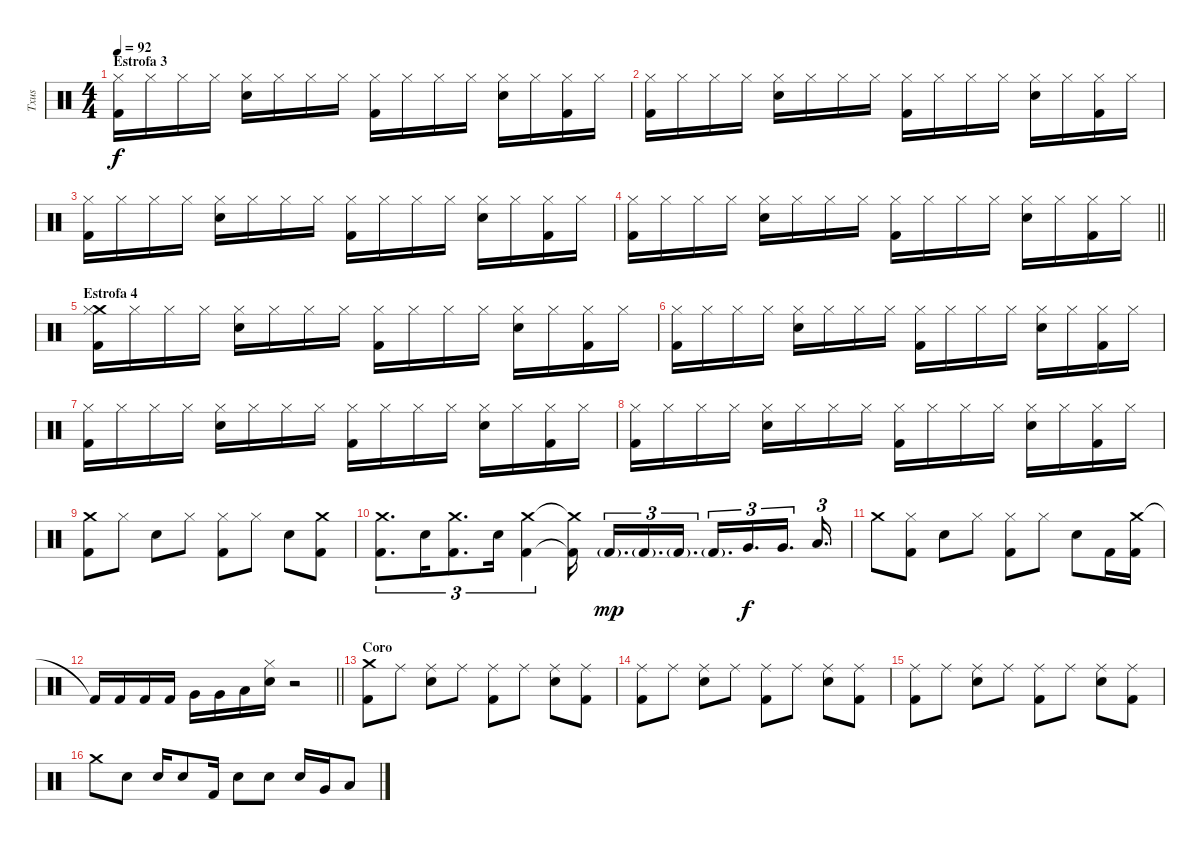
\track ("Txus" "Txus") {instrument percussion}
\staff {score}
\articulation defaults
\ts (4 4)
\section ("" "Estrofa 3")
\tempo 92
\clef neutral
\ks c
("Hi-Hat (closed)" "Kick (hit) 2").16{dy f} "Hi-Hat (closed)".16 "Hi-Hat (closed)".16 "Hi-Hat (closed)".16 ("Hi-Hat (closed)" "Electric Snare (hit)").16 "Hi-Hat (closed)".16 "Hi-Hat (closed)".16 "Hi-Hat (closed)".16 ("Hi-Hat (closed)" "Kick (hit) 2").16 "Hi-Hat (closed)".16 "Hi-Hat (closed)".16 "Hi-Hat (closed)".16 ("Hi-Hat (closed)" "Electric Snare (hit)").16 "Hi-Hat (closed)".16 ("Hi-Hat (closed)" "Kick (hit) 2").16 "Hi-Hat (closed)".16 |
("Hi-Hat (closed)" "Kick (hit) 2").16 "Hi-Hat (closed)".16 "Hi-Hat (closed)".16 "Hi-Hat (closed)".16 ("Hi-Hat (closed)" "Electric Snare (hit)").16 "Hi-Hat (closed)".16 "Hi-Hat (closed)".16 "Hi-Hat (closed)".16 ("Hi-Hat (closed)" "Kick (hit) 2").16 "Hi-Hat (closed)".16 "Hi-Hat (closed)".16 "Hi-Hat (closed)".16 ("Hi-Hat (closed)" "Electric Snare (hit)").16 "Hi-Hat (closed)".16 ("Hi-Hat (closed)" "Kick (hit) 2").16 "Hi-Hat (closed)".16 |
("Hi-Hat (closed)" "Kick (hit) 2").16 "Hi-Hat (closed)".16 "Hi-Hat (closed)".16 "Hi-Hat (closed)".16 ("Hi-Hat (closed)" "Electric Snare (hit)").16 "Hi-Hat (closed)".16 "Hi-Hat (closed)".16 "Hi-Hat (closed)".16 ("Hi-Hat (closed)" "Kick (hit) 2").16 "Hi-Hat (closed)".16 "Hi-Hat (closed)".16 "Hi-Hat (closed)".16 ("Hi-Hat (closed)" "Electric Snare (hit)").16 "Hi-Hat (closed)".16 ("Hi-Hat (closed)" "Kick (hit) 2").16 "Hi-Hat (closed)".16 |
\barLineRight lightlight
("Hi-Hat (closed)" "Kick (hit) 2").16 "Hi-Hat (closed)".16 "Hi-Hat (closed)".16 "Hi-Hat (closed)".16 ("Hi-Hat (closed)" "Electric Snare (hit)").16 "Hi-Hat (closed)".16 "Hi-Hat (closed)".16 "Hi-Hat (closed)".16 ("Hi-Hat (closed)" "Kick (hit) 2").16 "Hi-Hat (closed)".16 "Hi-Hat (closed)".16 "Hi-Hat (closed)".16 ("Hi-Hat (closed)" "Electric Snare (hit)").16 "Hi-Hat (closed)".16 ("Hi-Hat (closed)" "Kick (hit) 2").16 "Hi-Hat (closed)".16 |
\section ("" "Estrofa 4")
("Crash medium (hit)" "Hi-Hat (closed)" "Kick (hit) 2").16 "Hi-Hat (closed)".16 "Hi-Hat (closed)".16 "Hi-Hat (closed)".16 ("Hi-Hat (closed)" "Electric Snare (hit)").16 "Hi-Hat (closed)".16 "Hi-Hat (closed)".16 "Hi-Hat (closed)".16 ("Hi-Hat (closed)" "Kick (hit) 2").16 "Hi-Hat (closed)".16 "Hi-Hat (closed)".16 "Hi-Hat (closed)".16 ("Hi-Hat (closed)" "Electric Snare (hit)").16 "Hi-Hat (closed)".16 ("Hi-Hat (closed)" "Kick (hit) 2").16 "Hi-Hat (closed)".16 |
("Hi-Hat (closed)" "Kick (hit) 2").16 "Hi-Hat (closed)".16 "Hi-Hat (closed)".16 "Hi-Hat (closed)".16 ("Hi-Hat (closed)" "Electric Snare (hit)").16 "Hi-Hat (closed)".16 "Hi-Hat (closed)".16 "Hi-Hat (closed)".16 ("Hi-Hat (closed)" "Kick (hit) 2").16 "Hi-Hat (closed)".16 "Hi-Hat (closed)".16 "Hi-Hat (closed)".16 ("Hi-Hat (closed)" "Electric Snare (hit)").16 "Hi-Hat (closed)".16 ("Hi-Hat (closed)" "Kick (hit) 2").16 "Hi-Hat (closed)".16 |
("Hi-Hat (closed)" "Kick (hit) 2").16 "Hi-Hat (closed)".16 "Hi-Hat (closed)".16 "Hi-Hat (closed)".16 ("Hi-Hat (closed)" "Electric Snare (hit)").16 "Hi-Hat (closed)".16 "Hi-Hat (closed)".16 "Hi-Hat (closed)".16 ("Hi-Hat (closed)" "Kick (hit) 2").16 "Hi-Hat (closed)".16 "Hi-Hat (closed)".16 "Hi-Hat (closed)".16 ("Hi-Hat (closed)" "Electric Snare (hit)").16 "Hi-Hat (closed)".16 ("Hi-Hat (closed)" "Kick (hit) 2").16 "Hi-Hat (closed)".16 |
("Hi-Hat (closed)" "Kick (hit) 2").16 "Hi-Hat (closed)".16 "Hi-Hat (closed)".16 "Hi-Hat (closed)".16 ("Hi-Hat (closed)" "Electric Snare (hit)").16 "Hi-Hat (closed)".16 "Hi-Hat (closed)".16 "Hi-Hat (closed)".16 ("Hi-Hat (closed)" "Kick (hit) 2").16 "Hi-Hat (closed)".16 "Hi-Hat (closed)".16 "Hi-Hat (closed)".16 ("Hi-Hat (closed)" "Electric Snare (hit)").16 "Hi-Hat (closed)".16 ("Hi-Hat (closed)" "Kick (hit) 2").16 "Hi-Hat (closed)".16 |
("Crash medium (hit)" "Kick (hit) 2").8 "Hi-Hat (closed)".8 "Electric Snare (hit)".8 "Hi-Hat (closed)".8 ("Hi-Hat (closed)" "Kick (hit) 2").8 "Hi-Hat (closed)".8 "Electric Snare (hit)".8 ("Crash medium (hit)" "Kick (hit) 2").8 |
("Crash medium (hit)" "Kick (hit) 2").8{d tu (3 2)} "Electric Snare (hit)".16{tu (3 2)} ("Crash medium (hit)" "Kick (hit) 2").8{d tu (3 2)} "Electric Snare (hit)".16{tu (3 2)} ("Crash medium (hit)" "Kick (hit) 2").4{tu (3 2)} ("Crash medium (hit)"{t} "Kick (hit) 2"{t}).16{beam splitsecondary} "Kick (hit) 2"{g}.16{d tu (3 2) dy mp} "Kick (hit) 2"{g}.16{d tu (3 2)} "Kick (hit) 2"{g}.16{d tu (3 2)} "Kick (hit) 2"{g}.16{d tu (3 2)} "Very Low Tom (hit)".16{d tu (3 2) dy f} "Very Low Tom (hit)".16{d tu (3 2)} "Low Floor Tom (hit)".16{d tu (3 2)} |
"Crash medium (hit)".8 ("Hi-Hat (closed)" "Kick (hit) 2").8 "Electric Snare (hit)".8 "Hi-Hat (closed)".8 ("Hi-Hat (closed)" "Kick (hit) 2").8 "Hi-Hat (closed)".8 "Electric Snare (hit)".8 "Kick (hit) 2".16 ("Crash medium (hit)" "Kick (hit) 2").16 |
\barLineRight lightlight "Kick (hit) 2"{t}.16 "Kick (hit) 2".16 "Kick (hit) 2".16 "Kick (hit) 2".16 "Very Low Tom (hit)".16 "Very Low Tom (hit)".16 "Low Floor Tom (hit)".16
("Hi-Hat (closed)" "Electric Snare (hit)").16 r.2 |
\section ("" "Coro")
("Crash medium (hit)" "Kick (hit) 2").8 "Ride (middle)".8 ("Ride (middle)" "Electric Snare (hit)").8 "Ride (middle)".8 ("Ride (middle)" "Kick (hit) 2").8 "Ride (middle)".8 ("Ride (middle)" "Electric Snare (hit)").8 ("Ride (middle)" "Kick (hit) 2").8 |
("Ride (middle)" "Kick (hit) 2").8 "Ride (middle)".8 ("Ride (middle)" "Electric Snare (hit)").8 "Ride (middle)".8 ("Ride (middle)" "Kick (hit) 2").8 "Ride (middle)".8 ("Ride (middle)" "Electric Snare (hit)").8 ("Ride (middle)" "Kick (hit) 2").8 |
("Ride (middle)" "Kick (hit) 2").8 "Ride (middle)".8 ("Ride (middle)" "Electric Snare (hit)").8 "Ride (middle)".8 ("Ride (middle)" "Kick (hit) 2").8 "Ride (middle)".8 ("Ride (middle)" "Electric Snare (hit)").8 ("Ride (middle)" "Kick (hit) 2").8 |
"Crash medium (hit)".8 "Electric Snare (hit)".8 "Electric Snare (hit)".16 "Electric Snare (hit)".8 "Kick (hit) 2".16 "Electric Snare (hit)".8 "Electric Snare (hit)".8 "Electric Snare (hit)".16 "Very Low Tom (hit)".16 "Low Floor Tom (hit)".8
